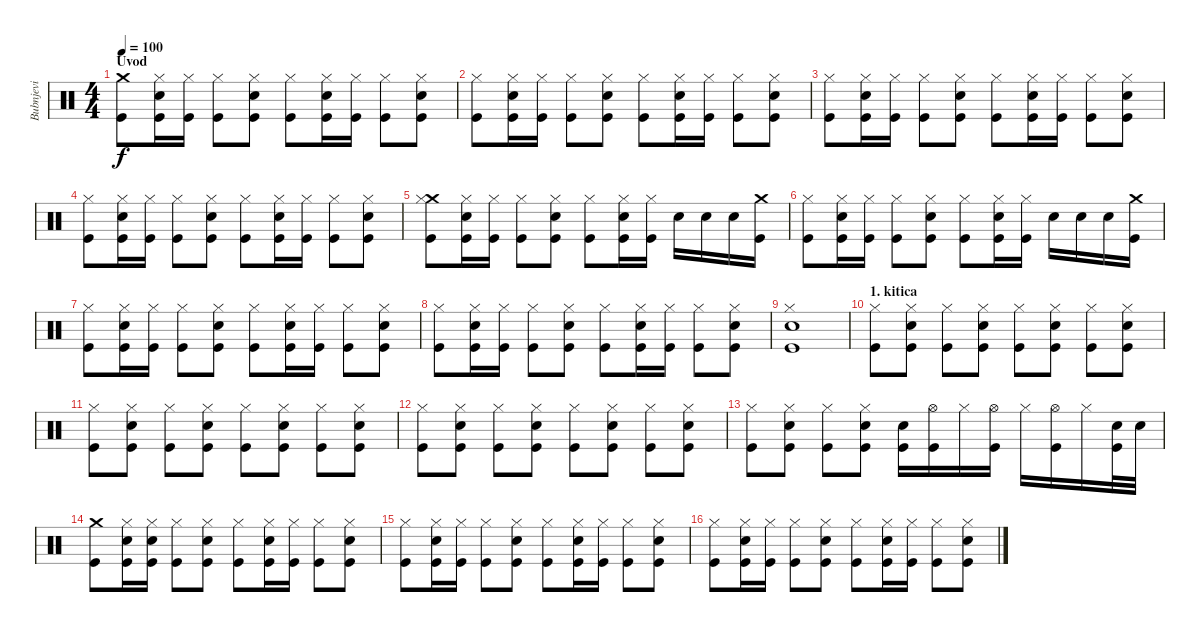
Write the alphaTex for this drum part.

\track ("Bubnjevi" "Bubnjevi") {instrument percussion}
\staff {score}
\articulation defaults
\ts (4 4)
\section ("" "Uvod")
\tempo 100
\clef neutral
\ks c
("Crash medium (hit)" "Kick (hit)").8{dy f} ("Electric Snare (hit)" "Hi-Hat (closed)" "Kick (hit)").16 ("Hi-Hat (closed)" "Kick (hit)").16 ("Hi-Hat (closed)" "Kick (hit)").8 ("Electric Snare (hit)" "Hi-Hat (closed)" "Kick (hit)").8 ("Hi-Hat (closed)" "Kick (hit)").8 ("Electric Snare (hit)" "Hi-Hat (closed)" "Kick (hit)").16 ("Hi-Hat (closed)" "Kick (hit)").16 ("Hi-Hat (closed)" "Kick (hit)").8 ("Electric Snare (hit)" "Hi-Hat (closed)" "Kick (hit)").8 |
("Hi-Hat (closed)" "Kick (hit)").8 ("Electric Snare (hit)" "Hi-Hat (closed)" "Kick (hit)").16 ("Hi-Hat (closed)" "Kick (hit)").16 ("Hi-Hat (closed)" "Kick (hit)").8 ("Electric Snare (hit)" "Hi-Hat (closed)" "Kick (hit)").8 ("Hi-Hat (closed)" "Kick (hit)").8 ("Electric Snare (hit)" "Hi-Hat (closed)" "Kick (hit)").16 ("Hi-Hat (closed)" "Kick (hit)").16 ("Hi-Hat (closed)" "Kick (hit)").8 ("Electric Snare (hit)" "Hi-Hat (closed)" "Kick (hit)").8 |
("Hi-Hat (closed)" "Kick (hit)").8 ("Electric Snare (hit)" "Hi-Hat (closed)" "Kick (hit)").16 ("Hi-Hat (closed)" "Kick (hit)").16 ("Hi-Hat (closed)" "Kick (hit)").8 ("Electric Snare (hit)" "Hi-Hat (closed)" "Kick (hit)").8 ("Hi-Hat (closed)" "Kick (hit)").8 ("Electric Snare (hit)" "Hi-Hat (closed)" "Kick (hit)").16 ("Hi-Hat (closed)" "Kick (hit)").16 ("Hi-Hat (closed)" "Kick (hit)").8 ("Electric Snare (hit)" "Hi-Hat (closed)" "Kick (hit)").8 |
("Hi-Hat (closed)" "Kick (hit)").8 ("Electric Snare (hit)" "Hi-Hat (closed)" "Kick (hit)").16 ("Hi-Hat (closed)" "Kick (hit)").16 ("Hi-Hat (closed)" "Kick (hit)").8 ("Electric Snare (hit)" "Hi-Hat (closed)" "Kick (hit)").8 ("Hi-Hat (closed)" "Kick (hit)").8 ("Electric Snare (hit)" "Hi-Hat (closed)" "Kick (hit)").16 ("Hi-Hat (closed)" "Kick (hit)").16 ("Hi-Hat (closed)" "Kick (hit)").8 ("Electric Snare (hit)" "Hi-Hat (closed)" "Kick (hit)").8 |
("Crash medium (hit)" "Hi-Hat (closed)" "Kick (hit)").8 ("Electric Snare (hit)" "Hi-Hat (closed)" "Kick (hit)").16 ("Hi-Hat (closed)" "Kick (hit)").16 ("Hi-Hat (closed)" "Kick (hit)").8 ("Electric Snare (hit)" "Hi-Hat (closed)" "Kick (hit)").8 ("Hi-Hat (closed)" "Kick (hit)").8 ("Electric Snare (hit)" "Hi-Hat (closed)" "Kick (hit)").16 ("Hi-Hat (closed)" "Kick (hit)").16 "Electric Snare (hit)".16 "Electric Snare (hit)".16 "Electric Snare (hit)".16 ("Crash medium (hit)" "Kick (hit)").16 |
("Hi-Hat (closed)" "Kick (hit)").8 ("Electric Snare (hit)" "Hi-Hat (closed)" "Kick (hit)").16 ("Hi-Hat (closed)" "Kick (hit)").16 ("Hi-Hat (closed)" "Kick (hit)").8 ("Electric Snare (hit)" "Hi-Hat (closed)" "Kick (hit)").8 ("Hi-Hat (closed)" "Kick (hit)").8 ("Electric Snare (hit)" "Hi-Hat (closed)" "Kick (hit)").16 ("Hi-Hat (closed)" "Kick (hit)").16 "Electric Snare (hit)".16 "Electric Snare (hit)".16 "Electric Snare (hit)".16 ("Crash medium (hit)" "Kick (hit)").16 |
("Hi-Hat (closed)" "Kick (hit)").8 ("Electric Snare (hit)" "Hi-Hat (closed)" "Kick (hit)").16 ("Hi-Hat (closed)" "Kick (hit)").16 ("Hi-Hat (closed)" "Kick (hit)").8 ("Electric Snare (hit)" "Hi-Hat (closed)" "Kick (hit)").8 ("Hi-Hat (closed)" "Kick (hit)").8 ("Electric Snare (hit)" "Hi-Hat (closed)" "Kick (hit)").16 ("Hi-Hat (closed)" "Kick (hit)").16 ("Hi-Hat (closed)" "Kick (hit)").8 ("Electric Snare (hit)" "Hi-Hat (closed)" "Kick (hit)").8 |
("Hi-Hat (closed)" "Kick (hit)").8 ("Electric Snare (hit)" "Hi-Hat (closed)" "Kick (hit)").16 ("Hi-Hat (closed)" "Kick (hit)").16 ("Hi-Hat (closed)" "Kick (hit)").8 ("Electric Snare (hit)" "Hi-Hat (closed)" "Kick (hit)").8 ("Hi-Hat (closed)" "Kick (hit)").8 ("Electric Snare (hit)" "Hi-Hat (closed)" "Kick (hit)").16 ("Hi-Hat (closed)" "Kick (hit)").16 ("Hi-Hat (closed)" "Kick (hit)").8 ("Electric Snare (hit)" "Hi-Hat (closed)" "Kick (hit)").8 |
("Electric Snare (hit)" "Hi-Hat (closed)" "Kick (hit)").1 |
\section ("" "1. kitica")
("Hi-Hat (closed)" "Kick (hit)").8 ("Electric Snare (hit)" "Hi-Hat (closed)" "Kick (hit)").8 ("Hi-Hat (closed)" "Kick (hit)").8 ("Electric Snare (hit)" "Hi-Hat (closed)" "Kick (hit)").8 ("Hi-Hat (closed)" "Kick (hit)").8 ("Electric Snare (hit)" "Hi-Hat (closed)" "Kick (hit)").8 ("Hi-Hat (closed)" "Kick (hit)").8 ("Electric Snare (hit)" "Hi-Hat (closed)" "Kick (hit)").8 |
("Hi-Hat (closed)" "Kick (hit)").8 ("Electric Snare (hit)" "Hi-Hat (closed)" "Kick (hit)").8 ("Hi-Hat (closed)" "Kick (hit)").8 ("Electric Snare (hit)" "Hi-Hat (closed)" "Kick (hit)").8 ("Hi-Hat (closed)" "Kick (hit)").8 ("Electric Snare (hit)" "Hi-Hat (closed)" "Kick (hit)").8 ("Hi-Hat (closed)" "Kick (hit)").8 ("Electric Snare (hit)" "Hi-Hat (closed)" "Kick (hit)").8 |
("Hi-Hat (closed)" "Kick (hit)").8 ("Electric Snare (hit)" "Hi-Hat (closed)" "Kick (hit)").8 ("Hi-Hat (closed)" "Kick (hit)").8 ("Electric Snare (hit)" "Hi-Hat (closed)" "Kick (hit)").8 ("Hi-Hat (closed)" "Kick (hit)").8 ("Electric Snare (hit)" "Hi-Hat (closed)" "Kick (hit)").8 ("Hi-Hat (closed)" "Kick (hit)").8 ("Electric Snare (hit)" "Hi-Hat (closed)" "Kick (hit)").8 |
("Hi-Hat (closed)" "Kick (hit)").8 ("Electric Snare (hit)" "Hi-Hat (closed)" "Kick (hit)").8 ("Hi-Hat (closed)" "Kick (hit)").8 ("Electric Snare (hit)" "Hi-Hat (closed)" "Kick (hit)").8 ("Electric Snare (hit)" "Kick (hit)").16 ("Hi-Hat (open)" "Kick (hit)").16 "Hi-Hat (closed)".16 ("Hi-Hat (open)" "Kick (hit)").16 "Hi-Hat (closed)".16 ("Hi-Hat (open)" "Kick (hit)").16 "Hi-Hat (closed)".16 ("Electric Snare (hit)" "Kick (hit)").32 "Electric Snare (hit)".32 |
("Crash medium (hit)" "Kick (hit)").8 ("Electric Snare (hit)" "Hi-Hat (closed)" "Kick (hit)").16 ("Electric Snare (hit)" "Hi-Hat (closed)" "Kick (hit)").16 ("Hi-Hat (closed)" "Kick (hit)").8 ("Electric Snare (hit)" "Hi-Hat (closed)" "Kick (hit)").8 ("Hi-Hat (closed)" "Kick (hit)").8 ("Electric Snare (hit)" "Hi-Hat (closed)" "Kick (hit)").16 ("Hi-Hat (closed)" "Kick (hit)").16 ("Hi-Hat (closed)" "Kick (hit)").8 ("Electric Snare (hit)" "Hi-Hat (closed)" "Kick (hit)").8 |
("Hi-Hat (closed)" "Kick (hit)").8 ("Electric Snare (hit)" "Hi-Hat (closed)" "Kick (hit)").16 ("Hi-Hat (closed)" "Kick (hit)").16 ("Hi-Hat (closed)" "Kick (hit)").8 ("Electric Snare (hit)" "Hi-Hat (closed)" "Kick (hit)").8 ("Hi-Hat (closed)" "Kick (hit)").8 ("Electric Snare (hit)" "Hi-Hat (closed)" "Kick (hit)").16 ("Hi-Hat (closed)" "Kick (hit)").16 ("Hi-Hat (closed)" "Kick (hit)").8 ("Electric Snare (hit)" "Hi-Hat (closed)" "Kick (hit)").8 |
("Hi-Hat (closed)" "Kick (hit)").8 ("Electric Snare (hit)" "Hi-Hat (closed)" "Kick (hit)").16 ("Hi-Hat (closed)" "Kick (hit)").16 ("Hi-Hat (closed)" "Kick (hit)").8 ("Electric Snare (hit)" "Hi-Hat (closed)" "Kick (hit)").8 ("Hi-Hat (closed)" "Kick (hit)").8 ("Electric Snare (hit)" "Hi-Hat (closed)" "Kick (hit)").16 ("Hi-Hat (closed)" "Kick (hit)").16 ("Hi-Hat (closed)" "Kick (hit)").8 ("Electric Snare (hit)" "Hi-Hat (closed)" "Kick (hit)").8
